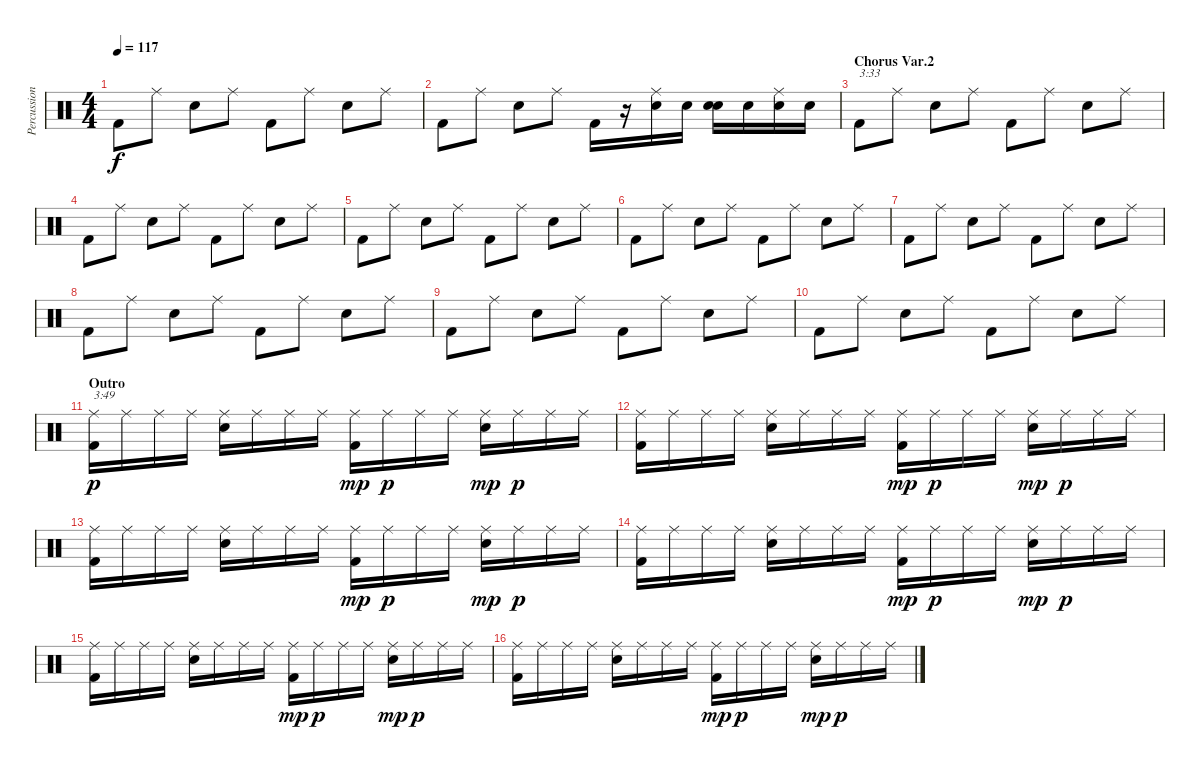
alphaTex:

\track ("Percussion" "Percussion") {instrument percussion}
\staff {score}
\articulation defaults
\ts (4 4)
\tempo 117
\clef neutral
\ks c "Kick (hit) 2".8{dy f} "Ride (middle)".8 "Snare (hit) 2".8 "Ride (middle)".8 "Kick (hit) 2".8 "Ride (middle)".8 "Snare (hit) 2".8 "Ride (middle)".8
|
"Kick (hit) 2".8 "Ride (middle)".8 "Snare (hit) 2".8 "Ride (middle)".8 "Kick (hit) 2".16 r.16 ("Ride (middle)" "Electric Snare (hit)").16 "Electric Snare (hit)".16 ("Snare (hit) 2" "Electric Snare (hit)").16 "Electric Snare (hit)".16 ("Ride (middle)" "Electric Snare (hit)").16 "Electric Snare (hit)".16 |
\section ("" "Chorus Var.2")
"Kick (hit) 2".8{txt "3:33"} "Ride (middle)".8 "Snare (hit) 2".8 "Ride (middle)".8 "Kick (hit) 2".8 "Ride (middle)".8 "Snare (hit) 2".8 "Ride (middle)".8 |
"Kick (hit) 2".8 "Ride (middle)".8 "Snare (hit) 2".8 "Ride (middle)".8 "Kick (hit) 2".8 "Ride (middle)".8 "Snare (hit) 2".8 "Ride (middle)".8 |
"Kick (hit) 2".8 "Ride (middle)".8 "Snare (hit) 2".8 "Ride (middle)".8 "Kick (hit) 2".8 "Ride (middle)".8 "Snare (hit) 2".8 "Ride (middle)".8 |
"Kick (hit) 2".8 "Ride (middle)".8 "Snare (hit) 2".8 "Ride (middle)".8 "Kick (hit) 2".8 "Ride (middle)".8 "Snare (hit) 2".8 "Ride (middle)".8 |
"Kick (hit) 2".8 "Ride (middle)".8 "Snare (hit) 2".8 "Ride (middle)".8 "Kick (hit) 2".8 "Ride (middle)".8 "Snare (hit) 2".8 "Ride (middle)".8 |
"Kick (hit) 2".8 "Ride (middle)".8 "Snare (hit) 2".8 "Ride (middle)".8 "Kick (hit) 2".8 "Ride (middle)".8 "Snare (hit) 2".8 "Ride (middle)".8 |
"Kick (hit) 2".8 "Ride (middle)".8 "Snare (hit) 2".8 "Ride (middle)".8 "Kick (hit) 2".8 "Ride (middle)".8 "Snare (hit) 2".8 "Ride (middle)".8 |
"Kick (hit) 2".8 "Ride (middle)".8 "Snare (hit) 2".8 "Ride (middle)".8 "Kick (hit) 2".8 "Ride (middle)".8 "Snare (hit) 2".8 "Ride (middle)".8 |
\section ("" "Outro")
("Kick (hit) 2" "Ride (middle)").16{txt "3:49" dy p} "Ride (middle)".16 "Ride (middle)".16 "Ride (middle)".16 ("Snare (hit) 2" "Ride (middle)").16 "Ride (middle)".16 "Ride (middle)".16 "Ride (middle)".16 ("Kick (hit) 2" "Ride (middle)").16{dy mp} "Ride (middle)".16{dy p} "Ride (middle)".16 "Ride (middle)".16 ("Snare (hit) 2" "Ride (middle)").16{dy mp} "Ride (middle)".16{dy p} "Ride (middle)".16 "Ride (middle)".16 |
("Kick (hit) 2" "Ride (middle)").16 "Ride (middle)".16 "Ride (middle)".16 "Ride (middle)".16 ("Snare (hit) 2" "Ride (middle)").16 "Ride (middle)".16 "Ride (middle)".16 "Ride (middle)".16 ("Kick (hit) 2" "Ride (middle)").16{dy mp} "Ride (middle)".16{dy p} "Ride (middle)".16 "Ride (middle)".16 ("Snare (hit) 2" "Ride (middle)").16{dy mp} "Ride (middle)".16{dy p} "Ride (middle)".16 "Ride (middle)".16 |
("Kick (hit) 2" "Ride (middle)").16 "Ride (middle)".16 "Ride (middle)".16 "Ride (middle)".16 ("Snare (hit) 2" "Ride (middle)").16 "Ride (middle)".16 "Ride (middle)".16 "Ride (middle)".16 ("Kick (hit) 2" "Ride (middle)").16{dy mp} "Ride (middle)".16{dy p} "Ride (middle)".16 "Ride (middle)".16 ("Snare (hit) 2" "Ride (middle)").16{dy mp} "Ride (middle)".16{dy p} "Ride (middle)".16 "Ride (middle)".16 |
("Kick (hit) 2" "Ride (middle)").16 "Ride (middle)".16 "Ride (middle)".16 "Ride (middle)".16 ("Snare (hit) 2" "Ride (middle)").16 "Ride (middle)".16 "Ride (middle)".16 "Ride (middle)".16 ("Kick (hit) 2" "Ride (middle)").16{dy mp} "Ride (middle)".16{dy p} "Ride (middle)".16 "Ride (middle)".16 ("Snare (hit) 2" "Ride (middle)").16{dy mp} "Ride (middle)".16{dy p} "Ride (middle)".16 "Ride (middle)".16 |
("Kick (hit) 2" "Ride (middle)").16 "Ride (middle)".16 "Ride (middle)".16 "Ride (middle)".16 ("Snare (hit) 2" "Ride (middle)").16 "Ride (middle)".16 "Ride (middle)".16 "Ride (middle)".16 ("Kick (hit) 2" "Ride (middle)").16{dy mp} "Ride (middle)".16{dy p} "Ride (middle)".16 "Ride (middle)".16 ("Snare (hit) 2" "Ride (middle)").16{dy mp} "Ride (middle)".16{dy p} "Ride (middle)".16 "Ride (middle)".16 |
("Kick (hit) 2" "Ride (middle)").16 "Ride (middle)".16 "Ride (middle)".16 "Ride (middle)".16 ("Snare (hit) 2" "Ride (middle)").16 "Ride (middle)".16 "Ride (middle)".16 "Ride (middle)".16 ("Kick (hit) 2" "Ride (middle)").16{dy mp} "Ride (middle)".16{dy p} "Ride (middle)".16 "Ride (middle)".16 ("Snare (hit) 2" "Ride (middle)").16{dy mp} "Ride (middle)".16{dy p} "Ride (middle)".16 "Ride (middle)".16
